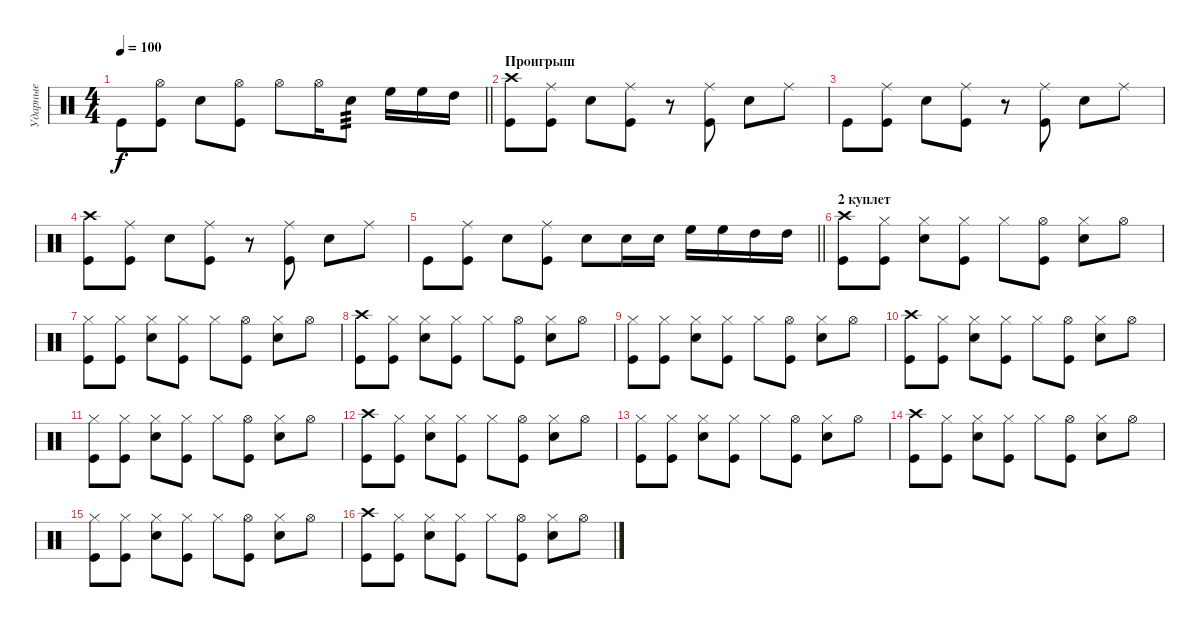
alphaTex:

\track ("Ударные" "Ударные") {instrument percussion}
\staff {score}
\articulation defaults
\ts (4 4)
\tempo 100
\clef neutral
\barLineRight lightlight
\ks c "Kick (hit)".8{dy f}
("Hi-Hat (open)" "Kick (hit)").8 "Snare (hit) 2".8 ("Hi-Hat (open)" "Kick (hit)").8 "Hi-Hat (open)".8 "Hi-Hat (open)".16 "Snare (hit) 2".8{tp 3} "High Floor Tom (hit)".16 "High Floor Tom (hit)".16 "High Tom (hit)".16 |
\section ("" "Проигрыш")
("Kick (hit)" "Crash high (hit)").8 ("Kick (hit)" "Ride (middle)").8 "Snare (hit) 2".8 ("Ride (middle)" "Kick (hit)").8 r.8 ("Ride (middle)" "Kick (hit)").8 "Snare (hit) 2".8 "Ride (middle)".8 |
"Kick (hit)".8 ("Kick (hit)" "Ride (middle)").8 "Snare (hit) 2".8 ("Ride (middle)" "Kick (hit)").8 r.8 ("Ride (middle)" "Kick (hit)").8 "Snare (hit) 2".8 "Ride (middle)".8 |
("Kick (hit)" "Crash high (hit)").8 ("Kick (hit)" "Ride (middle)").8 "Snare (hit) 2".8 ("Ride (middle)" "Kick (hit)").8 r.8 ("Ride (middle)" "Kick (hit)").8 "Snare (hit) 2".8 "Ride (middle)".8 |
\barLineRight lightlight "Kick (hit)".8
("Kick (hit)" "Ride (middle)").8 "Snare (hit) 2".8 ("Kick (hit)" "Ride (middle)").8 "Snare (hit) 2".8 "Snare (hit) 2".16 "Snare (hit) 2".16 "High Floor Tom (hit)".16 "High Floor Tom (hit)".16 "High Tom (hit)".16 "High Tom (hit)".16 |
\section ("" "2 куплет")
("Kick (hit)" "Crash high (hit)").8 ("Kick (hit)" "Hi-Hat (closed)").8 ("Snare (hit) 2" "Hi-Hat (closed)").8 ("Hi-Hat (closed)" "Kick (hit)").8 "Hi-Hat (closed)".8 ("Hi-Hat (open)" "Kick (hit)").8 ("Hi-Hat (closed)" "Snare (hit) 2").8 "Hi-Hat (open)".8 |
("Kick (hit)" "Hi-Hat (closed)").8 ("Kick (hit)" "Hi-Hat (closed)").8 ("Snare (hit) 2" "Hi-Hat (closed)").8 ("Hi-Hat (closed)" "Kick (hit)").8 "Hi-Hat (closed)".8 ("Kick (hit)" "Hi-Hat (open)").8 ("Hi-Hat (closed)" "Snare (hit) 2").8 "Hi-Hat (open)".8 |
("Kick (hit)" "Crash high (hit)").8 ("Kick (hit)" "Hi-Hat (closed)").8 ("Snare (hit) 2" "Hi-Hat (closed)").8 ("Hi-Hat (closed)" "Kick (hit)").8 "Hi-Hat (closed)".8 ("Hi-Hat (open)" "Kick (hit)").8 ("Hi-Hat (closed)" "Snare (hit) 2").8 "Hi-Hat (open)".8 |
("Kick (hit)" "Hi-Hat (closed)").8 ("Kick (hit)" "Hi-Hat (closed)").8 ("Snare (hit) 2" "Hi-Hat (closed)").8 ("Hi-Hat (closed)" "Kick (hit)").8 "Hi-Hat (closed)".8 ("Kick (hit)" "Hi-Hat (open)").8 ("Hi-Hat (closed)" "Snare (hit) 2").8 "Hi-Hat (open)".8 |
("Kick (hit)" "Crash high (hit)").8 ("Kick (hit)" "Hi-Hat (closed)").8 ("Snare (hit) 2" "Hi-Hat (closed)").8 ("Hi-Hat (closed)" "Kick (hit)").8 "Hi-Hat (closed)".8 ("Hi-Hat (open)" "Kick (hit)").8 ("Hi-Hat (closed)" "Snare (hit) 2").8 "Hi-Hat (open)".8 |
("Kick (hit)" "Hi-Hat (closed)").8 ("Kick (hit)" "Hi-Hat (closed)").8 ("Snare (hit) 2" "Hi-Hat (closed)").8 ("Hi-Hat (closed)" "Kick (hit)").8 "Hi-Hat (closed)".8 ("Kick (hit)" "Hi-Hat (open)").8 ("Hi-Hat (closed)" "Snare (hit) 2").8 "Hi-Hat (open)".8 |
("Kick (hit)" "Crash high (hit)").8 ("Kick (hit)" "Hi-Hat (closed)").8 ("Snare (hit) 2" "Hi-Hat (closed)").8 ("Hi-Hat (closed)" "Kick (hit)").8 "Hi-Hat (closed)".8 ("Hi-Hat (open)" "Kick (hit)").8 ("Hi-Hat (closed)" "Snare (hit) 2").8 "Hi-Hat (open)".8 |
("Kick (hit)" "Hi-Hat (closed)").8 ("Kick (hit)" "Hi-Hat (closed)").8 ("Snare (hit) 2" "Hi-Hat (closed)").8 ("Hi-Hat (closed)" "Kick (hit)").8 "Hi-Hat (closed)".8 ("Kick (hit)" "Hi-Hat (open)").8 ("Hi-Hat (closed)" "Snare (hit) 2").8 "Hi-Hat (open)".8 |
("Kick (hit)" "Crash high (hit)").8 ("Kick (hit)" "Hi-Hat (closed)").8 ("Snare (hit) 2" "Hi-Hat (closed)").8 ("Hi-Hat (closed)" "Kick (hit)").8 "Hi-Hat (closed)".8 ("Hi-Hat (open)" "Kick (hit)").8 ("Hi-Hat (closed)" "Snare (hit) 2").8 "Hi-Hat (open)".8 |
("Kick (hit)" "Hi-Hat (closed)").8 ("Kick (hit)" "Hi-Hat (closed)").8 ("Snare (hit) 2" "Hi-Hat (closed)").8 ("Hi-Hat (closed)" "Kick (hit)").8 "Hi-Hat (closed)".8 ("Kick (hit)" "Hi-Hat (open)").8 ("Hi-Hat (closed)" "Snare (hit) 2").8 "Hi-Hat (open)".8 |
("Kick (hit)" "Crash high (hit)").8 ("Kick (hit)" "Hi-Hat (closed)").8 ("Snare (hit) 2" "Hi-Hat (closed)").8 ("Hi-Hat (closed)" "Kick (hit)").8 "Hi-Hat (closed)".8 ("Hi-Hat (open)" "Kick (hit)").8 ("Hi-Hat (closed)" "Snare (hit) 2").8 "Hi-Hat (open)".8
